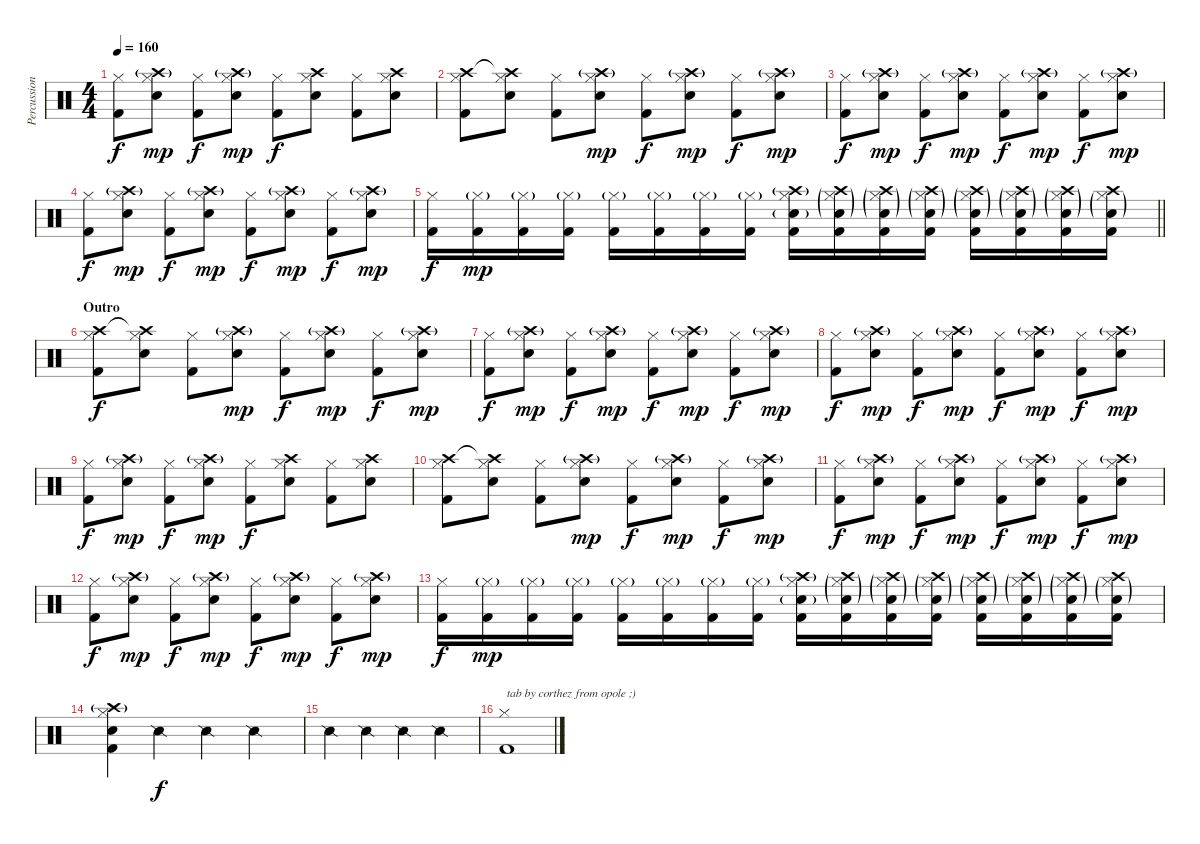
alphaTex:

\track ("Percussion" "Percussion") {instrument percussion}
\staff {score}
\articulation defaults
\ts (4 4)
\tempo 160
\clef neutral
\ks c
("Hi-Hat (closed)" "Kick (hit) 2").8{dy f} ("Crash high (hit)"{g} "Hi-Hat (closed)" "Snare (hit) 2").8{dy mp} ("Hi-Hat (closed)" "Kick (hit) 2").8{dy f} ("Crash high (hit)"{g} "Hi-Hat (closed)" "Snare (hit) 2").8{dy mp} ("Hi-Hat (closed)" "Kick (hit) 2").8{dy f} ("Crash high (hit)" "Hi-Hat (closed)" "Snare (hit) 2").8 ("Hi-Hat (closed)" "Kick (hit) 2").8 ("Crash high (hit)" "Hi-Hat (closed)" "Snare (hit) 2").8 |
("Crash high (hit)" "Hi-Hat (closed)" "Kick (hit) 2").8 ("Crash high (hit)"{t} "Hi-Hat (closed)" "Snare (hit) 2").8 ("Hi-Hat (closed)" "Kick (hit) 2").8 ("Crash high (hit)"{g} "Hi-Hat (closed)" "Snare (hit) 2").8{dy mp} ("Hi-Hat (closed)" "Kick (hit) 2").8{dy f} ("Crash high (hit)"{g} "Hi-Hat (closed)" "Snare (hit) 2").8{dy mp} ("Hi-Hat (closed)" "Kick (hit) 2").8{dy f} ("Crash high (hit)"{g} "Hi-Hat (closed)" "Snare (hit) 2").8{dy mp} |
("Hi-Hat (closed)" "Kick (hit) 2").8{dy f} ("Crash high (hit)"{g} "Hi-Hat (closed)" "Snare (hit) 2").8{dy mp} ("Hi-Hat (closed)" "Kick (hit) 2").8{dy f} ("Crash high (hit)"{g} "Hi-Hat (closed)" "Snare (hit) 2").8{dy mp} ("Hi-Hat (closed)" "Kick (hit) 2").8{dy f} ("Crash high (hit)"{g} "Hi-Hat (closed)" "Snare (hit) 2").8{dy mp} ("Hi-Hat (closed)" "Kick (hit) 2").8{dy f} ("Crash high (hit)"{g} "Hi-Hat (closed)" "Snare (hit) 2").8{dy mp} |
("Hi-Hat (closed)" "Kick (hit) 2").8{dy f} ("Crash high (hit)"{g} "Hi-Hat (closed)" "Snare (hit) 2").8{dy mp} ("Hi-Hat (closed)" "Kick (hit) 2").8{dy f} ("Crash high (hit)"{g} "Hi-Hat (closed)" "Snare (hit) 2").8{dy mp} ("Hi-Hat (closed)" "Kick (hit) 2").8{dy f} ("Crash high (hit)"{g} "Hi-Hat (closed)" "Snare (hit) 2").8{dy mp} ("Hi-Hat (closed)" "Kick (hit) 2").8{dy f} ("Crash high (hit)"{g} "Hi-Hat (closed)" "Snare (hit) 2").8{dy mp} |
\barLineRight lightlight
("Hi-Hat (closed)" "Kick (hit) 2").16{dy f} ("Hi-Hat (closed)"{g} "Kick (hit) 2").16{dy mp} ("Hi-Hat (closed)"{g} "Kick (hit) 2").16 ("Hi-Hat (closed)"{g} "Kick (hit) 2").16 ("Hi-Hat (closed)"{g} "Kick (hit) 2").16 ("Hi-Hat (closed)"{g} "Kick (hit) 2").16 ("Hi-Hat (closed)"{g} "Kick (hit) 2").16 ("Hi-Hat (closed)"{g} "Kick (hit) 2").16 ("Crash high (hit)"{g} "Electric Snare (hit)"{g} "Hi-Hat (closed)" "Kick (hit) 2").16 ("Crash high (hit)"{g} "Electric Snare (hit)"{g} "Hi-Hat (closed)"{g} "Kick (hit) 2").16 ("Crash high (hit)"{g} "Electric Snare (hit)"{g} "Hi-Hat (closed)"{g} "Kick (hit) 2").16 ("Crash high (hit)"{g} "Electric Snare (hit)"{g} "Hi-Hat (closed)"{g} "Kick (hit) 2").16 ("Crash high (hit)"{g} "Electric Snare (hit)"{g} "Hi-Hat (closed)"{g} "Kick (hit) 2").16 ("Crash high (hit)"{g} "Electric Snare (hit)"{g} "Hi-Hat (closed)"{g} "Kick (hit) 2").16 ("Crash high (hit)"{g} "Electric Snare (hit)"{g} "Hi-Hat (closed)"{g} "Kick (hit) 2").16 ("Crash high (hit)" "Electric Snare (hit)"{g} "Hi-Hat (closed)"{g} "Kick (hit) 2").16 |
\section ("" "Outro")
("Crash high (hit)" "Hi-Hat (closed)" "Kick (hit) 2").8{dy f} ("Crash high (hit)"{t} "Hi-Hat (closed)" "Snare (hit) 2").8 ("Hi-Hat (closed)" "Kick (hit) 2").8 ("Crash high (hit)"{g} "Hi-Hat (closed)" "Snare (hit) 2").8{dy mp} ("Hi-Hat (closed)" "Kick (hit) 2").8{dy f} ("Crash high (hit)"{g} "Hi-Hat (closed)" "Snare (hit) 2").8{dy mp} ("Hi-Hat (closed)" "Kick (hit) 2").8{dy f} ("Crash high (hit)"{g} "Hi-Hat (closed)" "Snare (hit) 2").8{dy mp} |
("Hi-Hat (closed)" "Kick (hit) 2").8{dy f} ("Crash high (hit)"{g} "Hi-Hat (closed)" "Snare (hit) 2").8{dy mp} ("Hi-Hat (closed)" "Kick (hit) 2").8{dy f} ("Crash high (hit)"{g} "Hi-Hat (closed)" "Snare (hit) 2").8{dy mp} ("Hi-Hat (closed)" "Kick (hit) 2").8{dy f} ("Crash high (hit)"{g} "Hi-Hat (closed)" "Snare (hit) 2").8{dy mp} ("Hi-Hat (closed)" "Kick (hit) 2").8{dy f} ("Crash high (hit)"{g} "Hi-Hat (closed)" "Snare (hit) 2").8{dy mp} |
("Hi-Hat (closed)" "Kick (hit) 2").8{dy f} ("Crash high (hit)"{g} "Hi-Hat (closed)" "Snare (hit) 2").8{dy mp} ("Hi-Hat (closed)" "Kick (hit) 2").8{dy f} ("Crash high (hit)"{g} "Hi-Hat (closed)" "Snare (hit) 2").8{dy mp} ("Hi-Hat (closed)" "Kick (hit) 2").8{dy f} ("Crash high (hit)"{g} "Hi-Hat (closed)" "Snare (hit) 2").8{dy mp} ("Hi-Hat (closed)" "Kick (hit) 2").8{dy f} ("Crash high (hit)"{g} "Hi-Hat (closed)" "Snare (hit) 2").8{dy mp} |
("Hi-Hat (closed)" "Kick (hit) 2").8{dy f} ("Crash high (hit)"{g} "Hi-Hat (closed)" "Snare (hit) 2").8{dy mp} ("Hi-Hat (closed)" "Kick (hit) 2").8{dy f} ("Crash high (hit)"{g} "Hi-Hat (closed)" "Snare (hit) 2").8{dy mp} ("Hi-Hat (closed)" "Kick (hit) 2").8{dy f} ("Crash high (hit)" "Hi-Hat (closed)" "Snare (hit) 2").8 ("Hi-Hat (closed)" "Kick (hit) 2").8 ("Crash high (hit)" "Hi-Hat (closed)" "Snare (hit) 2").8 |
("Crash high (hit)" "Hi-Hat (closed)" "Kick (hit) 2").8 ("Crash high (hit)"{t} "Hi-Hat (closed)" "Snare (hit) 2").8 ("Hi-Hat (closed)" "Kick (hit) 2").8 ("Crash high (hit)"{g} "Hi-Hat (closed)" "Snare (hit) 2").8{dy mp} ("Hi-Hat (closed)" "Kick (hit) 2").8{dy f} ("Crash high (hit)"{g} "Hi-Hat (closed)" "Snare (hit) 2").8{dy mp} ("Hi-Hat (closed)" "Kick (hit) 2").8{dy f} ("Crash high (hit)"{g} "Hi-Hat (closed)" "Snare (hit) 2").8{dy mp} |
("Hi-Hat (closed)" "Kick (hit) 2").8{dy f} ("Crash high (hit)"{g} "Hi-Hat (closed)" "Snare (hit) 2").8{dy mp} ("Hi-Hat (closed)" "Kick (hit) 2").8{dy f} ("Crash high (hit)"{g} "Hi-Hat (closed)" "Snare (hit) 2").8{dy mp} ("Hi-Hat (closed)" "Kick (hit) 2").8{dy f} ("Crash high (hit)"{g} "Hi-Hat (closed)" "Snare (hit) 2").8{dy mp} ("Hi-Hat (closed)" "Kick (hit) 2").8{dy f} ("Crash high (hit)"{g} "Hi-Hat (closed)" "Snare (hit) 2").8{dy mp} |
("Hi-Hat (closed)" "Kick (hit) 2").8{dy f} ("Crash high (hit)"{g} "Hi-Hat (closed)" "Snare (hit) 2").8{dy mp} ("Hi-Hat (closed)" "Kick (hit) 2").8{dy f} ("Crash high (hit)"{g} "Hi-Hat (closed)" "Snare (hit) 2").8{dy mp} ("Hi-Hat (closed)" "Kick (hit) 2").8{dy f} ("Crash high (hit)"{g} "Hi-Hat (closed)" "Snare (hit) 2").8{dy mp} ("Hi-Hat (closed)" "Kick (hit) 2").8{dy f} ("Crash high (hit)"{g} "Hi-Hat (closed)" "Snare (hit) 2").8{dy mp} |
("Hi-Hat (closed)" "Kick (hit) 2").16{dy f} ("Hi-Hat (closed)"{g} "Kick (hit) 2").16{dy mp} ("Hi-Hat (closed)"{g} "Kick (hit) 2").16 ("Hi-Hat (closed)"{g} "Kick (hit) 2").16 ("Hi-Hat (closed)"{g} "Kick (hit) 2").16 ("Hi-Hat (closed)"{g} "Kick (hit) 2").16 ("Hi-Hat (closed)"{g} "Kick (hit) 2").16 ("Hi-Hat (closed)"{g} "Kick (hit) 2").16 ("Crash high (hit)"{g} "Electric Snare (hit)"{g} "Hi-Hat (closed)" "Kick (hit) 2").16 ("Crash high (hit)"{g} "Electric Snare (hit)"{g} "Hi-Hat (closed)"{g} "Kick (hit) 2").16 ("Crash high (hit)"{g} "Electric Snare (hit)"{g} "Hi-Hat (closed)"{g} "Kick (hit) 2").16 ("Crash high (hit)"{g} "Electric Snare (hit)"{g} "Hi-Hat (closed)"{g} "Kick (hit) 2").16 ("Crash high (hit)"{g} "Electric Snare (hit)"{g} "Hi-Hat (closed)"{g} "Kick (hit) 2").16 ("Crash high (hit)"{g} "Electric Snare (hit)"{g} "Hi-Hat (closed)"{g} "Kick (hit) 2").16 ("Crash high (hit)"{g} "Electric Snare (hit)"{g} "Hi-Hat (closed)"{g} "Kick (hit) 2").16 ("Crash high (hit)" "Electric Snare (hit)"{g} "Hi-Hat (closed)"{g} "Kick (hit) 2").16 |
("Hi-Hat (closed)" "Crash high (hit)"{g} "Snare (hit) 2" "Kick (hit) 2").4 "Snare (side stick) 2".4{dy f} "Snare (side stick) 2".4 "Snare (side stick) 2".4 |
"Snare (side stick) 2".4 "Snare (side stick) 2".4 "Snare (side stick) 2".4 "Snare (side stick) 2".4 |
("Hi-Hat (closed)" "Kick (hit) 2").1{txt "tab by corthez from opole ;)"}
